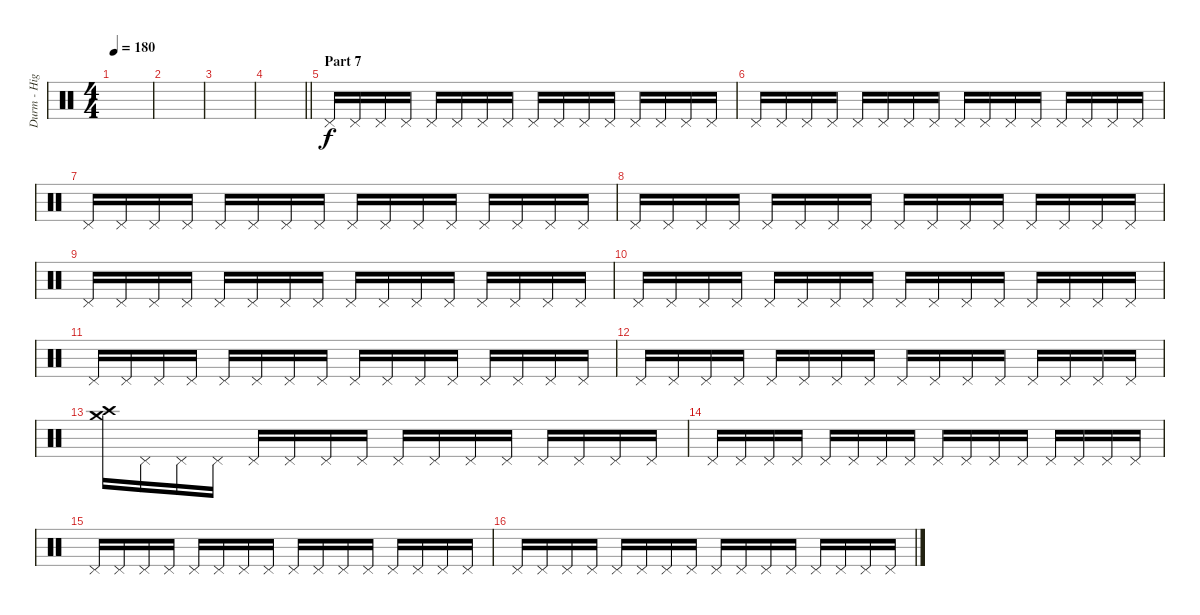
\track ("Durm - High Hat" "Durm - Hig") {instrument percussion}
\staff {score}
\articulation defaults
\ts (4 4)
\tempo 180
\clef neutral
\ks c
|
|
|
\barLineRight lightlight
|
\section ("" "Part 7")
"Pedal Hi-Hat (hit)".16 "Pedal Hi-Hat (hit)".16 "Pedal Hi-Hat (hit)".16 "Pedal Hi-Hat (hit)".16 "Pedal Hi-Hat (hit)".16 "Pedal Hi-Hat (hit)".16 "Pedal Hi-Hat (hit)".16 "Pedal Hi-Hat (hit)".16 "Pedal Hi-Hat (hit)".16 "Pedal Hi-Hat (hit)".16 "Pedal Hi-Hat (hit)".16 "Pedal Hi-Hat (hit)".16 "Pedal Hi-Hat (hit)".16 "Pedal Hi-Hat (hit)".16 "Pedal Hi-Hat (hit)".16 "Pedal Hi-Hat (hit)".16 |
"Pedal Hi-Hat (hit)".16 "Pedal Hi-Hat (hit)".16 "Pedal Hi-Hat (hit)".16 "Pedal Hi-Hat (hit)".16 "Pedal Hi-Hat (hit)".16 "Pedal Hi-Hat (hit)".16 "Pedal Hi-Hat (hit)".16 "Pedal Hi-Hat (hit)".16 "Pedal Hi-Hat (hit)".16 "Pedal Hi-Hat (hit)".16 "Pedal Hi-Hat (hit)".16 "Pedal Hi-Hat (hit)".16 "Pedal Hi-Hat (hit)".16 "Pedal Hi-Hat (hit)".16 "Pedal Hi-Hat (hit)".16 "Pedal Hi-Hat (hit)".16 |
"Pedal Hi-Hat (hit)".16 "Pedal Hi-Hat (hit)".16 "Pedal Hi-Hat (hit)".16 "Pedal Hi-Hat (hit)".16 "Pedal Hi-Hat (hit)".16 "Pedal Hi-Hat (hit)".16 "Pedal Hi-Hat (hit)".16 "Pedal Hi-Hat (hit)".16 "Pedal Hi-Hat (hit)".16 "Pedal Hi-Hat (hit)".16 "Pedal Hi-Hat (hit)".16 "Pedal Hi-Hat (hit)".16 "Pedal Hi-Hat (hit)".16 "Pedal Hi-Hat (hit)".16 "Pedal Hi-Hat (hit)".16 "Pedal Hi-Hat (hit)".16 |
"Pedal Hi-Hat (hit)".16 "Pedal Hi-Hat (hit)".16 "Pedal Hi-Hat (hit)".16 "Pedal Hi-Hat (hit)".16 "Pedal Hi-Hat (hit)".16 "Pedal Hi-Hat (hit)".16 "Pedal Hi-Hat (hit)".16 "Pedal Hi-Hat (hit)".16 "Pedal Hi-Hat (hit)".16 "Pedal Hi-Hat (hit)".16 "Pedal Hi-Hat (hit)".16 "Pedal Hi-Hat (hit)".16 "Pedal Hi-Hat (hit)".16 "Pedal Hi-Hat (hit)".16 "Pedal Hi-Hat (hit)".16 "Pedal Hi-Hat (hit)".16 |
"Pedal Hi-Hat (hit)".16 "Pedal Hi-Hat (hit)".16 "Pedal Hi-Hat (hit)".16 "Pedal Hi-Hat (hit)".16 "Pedal Hi-Hat (hit)".16 "Pedal Hi-Hat (hit)".16 "Pedal Hi-Hat (hit)".16 "Pedal Hi-Hat (hit)".16 "Pedal Hi-Hat (hit)".16 "Pedal Hi-Hat (hit)".16 "Pedal Hi-Hat (hit)".16 "Pedal Hi-Hat (hit)".16 "Pedal Hi-Hat (hit)".16 "Pedal Hi-Hat (hit)".16 "Pedal Hi-Hat (hit)".16 "Pedal Hi-Hat (hit)".16 |
"Pedal Hi-Hat (hit)".16 "Pedal Hi-Hat (hit)".16 "Pedal Hi-Hat (hit)".16 "Pedal Hi-Hat (hit)".16 "Pedal Hi-Hat (hit)".16 "Pedal Hi-Hat (hit)".16 "Pedal Hi-Hat (hit)".16 "Pedal Hi-Hat (hit)".16 "Pedal Hi-Hat (hit)".16 "Pedal Hi-Hat (hit)".16 "Pedal Hi-Hat (hit)".16 "Pedal Hi-Hat (hit)".16 "Pedal Hi-Hat (hit)".16 "Pedal Hi-Hat (hit)".16 "Pedal Hi-Hat (hit)".16 "Pedal Hi-Hat (hit)".16 |
"Pedal Hi-Hat (hit)".16 "Pedal Hi-Hat (hit)".16 "Pedal Hi-Hat (hit)".16 "Pedal Hi-Hat (hit)".16 "Pedal Hi-Hat (hit)".16 "Pedal Hi-Hat (hit)".16 "Pedal Hi-Hat (hit)".16 "Pedal Hi-Hat (hit)".16 "Pedal Hi-Hat (hit)".16 "Pedal Hi-Hat (hit)".16 "Pedal Hi-Hat (hit)".16 "Pedal Hi-Hat (hit)".16 "Pedal Hi-Hat (hit)".16 "Pedal Hi-Hat (hit)".16 "Pedal Hi-Hat (hit)".16 "Pedal Hi-Hat (hit)".16 |
"Pedal Hi-Hat (hit)".16 "Pedal Hi-Hat (hit)".16 "Pedal Hi-Hat (hit)".16 "Pedal Hi-Hat (hit)".16 "Pedal Hi-Hat (hit)".16 "Pedal Hi-Hat (hit)".16 "Pedal Hi-Hat (hit)".16 "Pedal Hi-Hat (hit)".16 "Pedal Hi-Hat (hit)".16 "Pedal Hi-Hat (hit)".16 "Pedal Hi-Hat (hit)".16 "Pedal Hi-Hat (hit)".16 "Pedal Hi-Hat (hit)".16 "Pedal Hi-Hat (hit)".16 "Pedal Hi-Hat (hit)".16 "Pedal Hi-Hat (hit)".16 |
("Crash medium (hit)" "Crash high (hit)").16 "Pedal Hi-Hat (hit)".16 "Pedal Hi-Hat (hit)".16 "Pedal Hi-Hat (hit)".16 "Pedal Hi-Hat (hit)".16 "Pedal Hi-Hat (hit)".16 "Pedal Hi-Hat (hit)".16 "Pedal Hi-Hat (hit)".16 "Pedal Hi-Hat (hit)".16 "Pedal Hi-Hat (hit)".16 "Pedal Hi-Hat (hit)".16 "Pedal Hi-Hat (hit)".16 "Pedal Hi-Hat (hit)".16 "Pedal Hi-Hat (hit)".16 "Pedal Hi-Hat (hit)".16 "Pedal Hi-Hat (hit)".16 |
"Pedal Hi-Hat (hit)".16 "Pedal Hi-Hat (hit)".16 "Pedal Hi-Hat (hit)".16 "Pedal Hi-Hat (hit)".16 "Pedal Hi-Hat (hit)".16 "Pedal Hi-Hat (hit)".16 "Pedal Hi-Hat (hit)".16 "Pedal Hi-Hat (hit)".16 "Pedal Hi-Hat (hit)".16 "Pedal Hi-Hat (hit)".16 "Pedal Hi-Hat (hit)".16 "Pedal Hi-Hat (hit)".16 "Pedal Hi-Hat (hit)".16 "Pedal Hi-Hat (hit)".16 "Pedal Hi-Hat (hit)".16 "Pedal Hi-Hat (hit)".16 |
"Pedal Hi-Hat (hit)".16 "Pedal Hi-Hat (hit)".16 "Pedal Hi-Hat (hit)".16 "Pedal Hi-Hat (hit)".16 "Pedal Hi-Hat (hit)".16 "Pedal Hi-Hat (hit)".16 "Pedal Hi-Hat (hit)".16 "Pedal Hi-Hat (hit)".16 "Pedal Hi-Hat (hit)".16 "Pedal Hi-Hat (hit)".16 "Pedal Hi-Hat (hit)".16 "Pedal Hi-Hat (hit)".16 "Pedal Hi-Hat (hit)".16 "Pedal Hi-Hat (hit)".16 "Pedal Hi-Hat (hit)".16 "Pedal Hi-Hat (hit)".16 |
"Pedal Hi-Hat (hit)".16 "Pedal Hi-Hat (hit)".16 "Pedal Hi-Hat (hit)".16 "Pedal Hi-Hat (hit)".16 "Pedal Hi-Hat (hit)".16 "Pedal Hi-Hat (hit)".16 "Pedal Hi-Hat (hit)".16 "Pedal Hi-Hat (hit)".16 "Pedal Hi-Hat (hit)".16 "Pedal Hi-Hat (hit)".16 "Pedal Hi-Hat (hit)".16 "Pedal Hi-Hat (hit)".16 "Pedal Hi-Hat (hit)".16 "Pedal Hi-Hat (hit)".16 "Pedal Hi-Hat (hit)".16 "Pedal Hi-Hat (hit)".16
